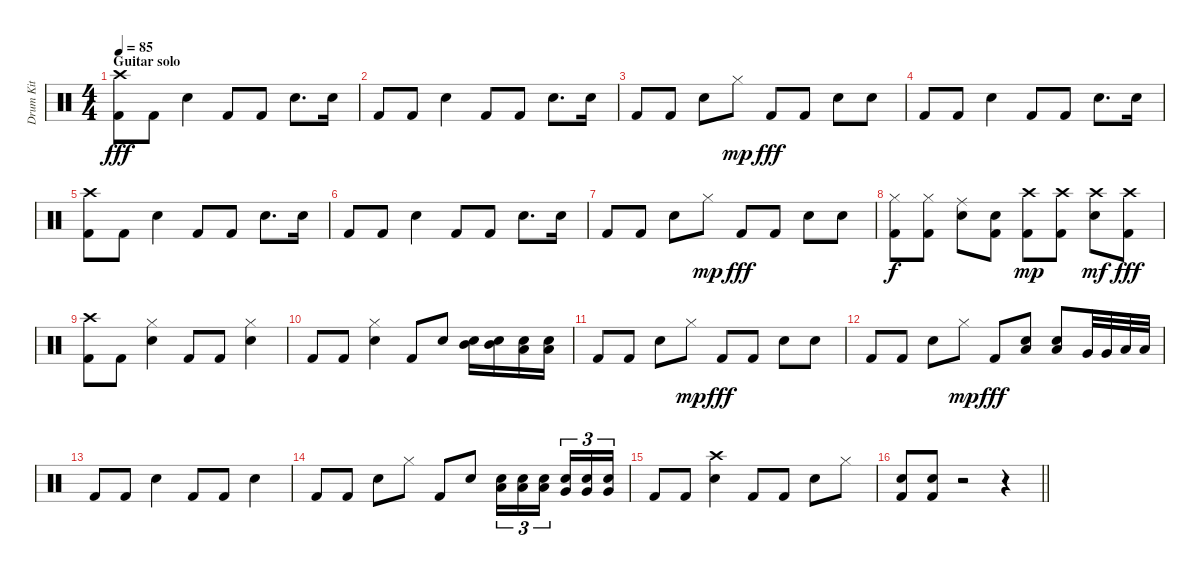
\track ("Drum Kit" "Drum Kit") {instrument percussion}
\staff {score}
\articulation defaults
\ts (4 4)
\section ("" "Guitar solo")
\tempo 85
\clef neutral
\ks c
("Crash high (hit)" "Kick (hit) 2").8{dy fff} "Kick (hit) 2".8 "Snare (hit) 2".4 "Kick (hit) 2".8 "Kick (hit) 2".8 "Snare (hit) 2".8{d} "Snare (hit) 2".16 |
"Kick (hit) 2".8 "Kick (hit) 2".8 "Snare (hit) 2".4 "Kick (hit) 2".8 "Kick (hit) 2".8 "Snare (hit) 2".8{d} "Snare (hit) 2".16 |
"Kick (hit) 2".8 "Kick (hit) 2".8 "Snare (hit) 2".8 "Hi-Hat (closed)".8{dy mp} "Kick (hit) 2".8{dy fff} "Kick (hit) 2".8 "Snare (hit) 2".8 "Snare (hit) 2".8 |
"Kick (hit) 2".8 "Kick (hit) 2".8 "Snare (hit) 2".4 "Kick (hit) 2".8 "Kick (hit) 2".8 "Snare (hit) 2".8{d} "Snare (hit) 2".16 |
("Crash high (hit)" "Kick (hit) 2").8 "Kick (hit) 2".8 "Snare (hit) 2".4 "Kick (hit) 2".8 "Kick (hit) 2".8 "Snare (hit) 2".8{d} "Snare (hit) 2".16 |
"Kick (hit) 2".8 "Kick (hit) 2".8 "Snare (hit) 2".4 "Kick (hit) 2".8 "Kick (hit) 2".8 "Snare (hit) 2".8{d} "Snare (hit) 2".16 |
"Kick (hit) 2".8 "Kick (hit) 2".8 "Snare (hit) 2".8 "Hi-Hat (closed)".8{dy mp} "Kick (hit) 2".8{dy fff} "Kick (hit) 2".8 "Snare (hit) 2".8 "Snare (hit) 2".8 |
("Hi-Hat (closed)" "Kick (hit) 2").8{dy f} ("Hi-Hat (closed)" "Kick (hit) 2").8 ("Ride (middle)" "Snare (hit) 2").8 ("Snare (hit)" "Kick (hit) 2").8 ("Crash high (hit)" "Kick (hit) 2").8{dy mp} ("Crash high (hit)" "Kick (hit) 2").8 ("Crash high (hit)" "Snare (hit) 2").8{dy mf} ("Crash high (hit)" "Kick (hit) 2").8{dy fff} |
("Crash high (hit)" "Kick (hit) 2").8 "Kick (hit) 2".8 ("Hi-Hat (closed)" "Snare (hit) 2").4 "Kick (hit) 2".8 "Kick (hit) 2".8 ("Hi-Hat (closed)" "Snare (hit) 2").4 |
"Kick (hit) 2".8 "Kick (hit) 2".8 ("Hi-Hat (closed)" "Snare (hit) 2").4 "Kick (hit) 2".8 "Snare (hit) 2".8 ("Snare (hit) 2" "Mid Tom (hit)").16 ("Snare (hit) 2" "Mid Tom (hit)").16 ("Snare (hit) 2" "Low Tom (hit)").16 ("Snare (hit) 2" "Low Tom (hit)").16 |
"Kick (hit) 2".8 "Kick (hit) 2".8 "Snare (hit) 2".8 "Hi-Hat (closed)".8{dy mp} "Kick (hit) 2".8{dy fff} "Kick (hit) 2".8 "Snare (hit) 2".8 "Snare (hit) 2".8 |
"Kick (hit) 2".8 "Kick (hit) 2".8 "Snare (hit) 2".8 "Hi-Hat (closed)".8{dy mp} "Kick (hit) 2".8{dy fff} ("Low Tom (hit)" "Snare (hit) 2").8 ("Low Tom (hit)" "Snare (hit) 2").8 "Very Low Tom (hit)".32 "Very Low Tom (hit)".32 "Low Floor Tom (hit)".32 "Low Floor Tom (hit)".32 |
"Kick (hit) 2".8 "Kick (hit) 2".8 "Snare (hit) 2".4 "Kick (hit) 2".8 "Kick (hit) 2".8 "Snare (hit) 2".4 |
"Kick (hit) 2".8 "Kick (hit) 2".8 "Snare (hit) 2".8 "Hi-Hat (closed)".8 "Kick (hit) 2".8 "Snare (hit) 2".8 ("Snare (hit) 2" "Low Tom (hit)").16{tu (3 2)} ("Snare (hit) 2" "Low Tom (hit)").16{tu (3 2)} ("Snare (hit) 2" "Low Tom (hit)").16{tu (3 2) beam splitsecondary} ("Snare (hit) 2" "Very Low Tom (hit)").16{tu (3 2)} ("Snare (hit) 2" "Very Low Tom (hit)").16{tu (3 2)} ("Snare (hit) 2" "Very Low Tom (hit)").16{tu (3 2)} |
"Kick (hit) 2".8 "Kick (hit) 2".8 ("Crash high (hit)" "Snare (hit) 2").4 "Kick (hit) 2".8 "Kick (hit) 2".8 "Snare (hit) 2".8 "Hi-Hat (closed)".8 |
\barLineRight lightlight
("Snare (hit) 2" "Kick (hit) 2").8 ("Snare (hit) 2" "Kick (hit) 2").8 r.2 r.4
